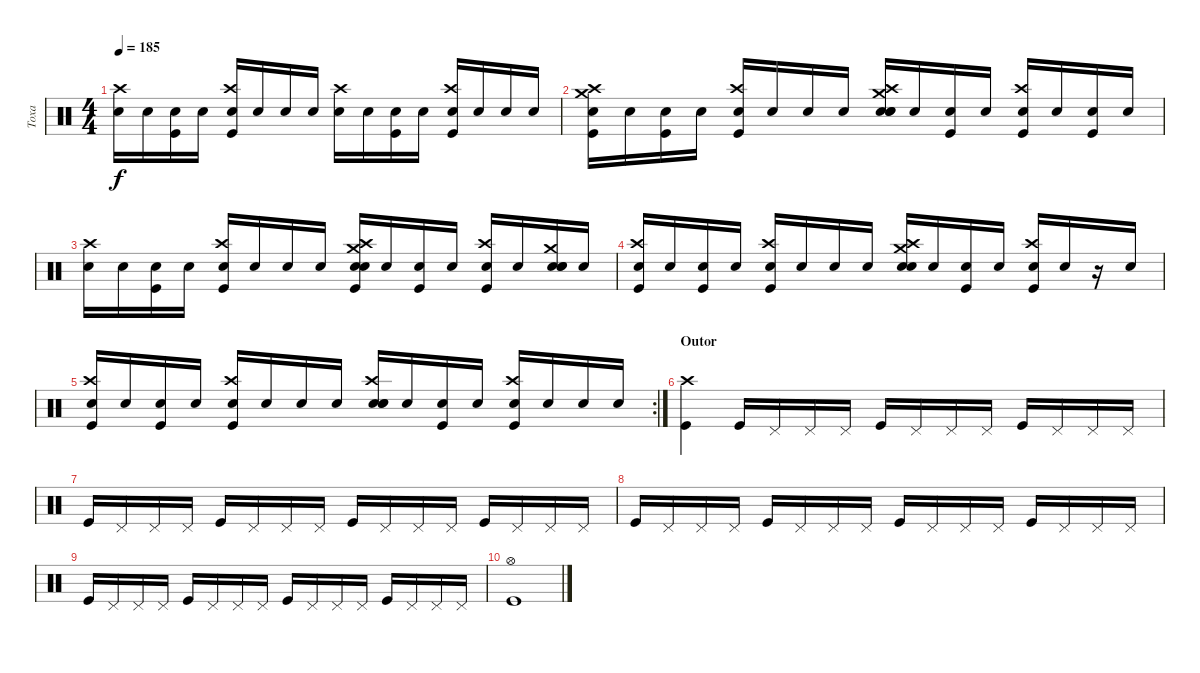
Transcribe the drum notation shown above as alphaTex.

\track ("Toxa" "Toxa") {instrument percussion}
\staff {score}
\articulation defaults
\ts (4 4)
\tempo 185
\clef neutral
\ks c
("Snare (hit)"{x} "Crash high (hit)").16{dy f} "Snare (hit)"{x}.16 ("Snare (hit)"{x} "Kick (hit)").16 "Snare (hit)"{x}.16 ("Snare (hit)"{x} "Kick (hit)" "Crash high (hit)").16 "Snare (hit)"{x}.16 "Snare (hit)"{x}.16 "Snare (hit)"{x}.16 ("Snare (hit)"{x} "Crash high (hit)").16 "Snare (hit)"{x}.16 ("Snare (hit)"{x} "Kick (hit)").16 "Snare (hit)"{x}.16 ("Snare (hit)"{x} "Kick (hit)" "Crash high (hit)").16 "Snare (hit)"{x}.16 "Snare (hit)"{x}.16 "Snare (hit)"{x}.16 |
("Snare (hit)"{x} "Kick (hit)" "Crash medium (hit)" "Crash high (hit)").16 "Snare (hit)"{x}.16 ("Snare (hit)"{x} "Kick (hit)").16 "Snare (hit)"{x}.16 ("Snare (hit)"{x} "Kick (hit)" "Crash high (hit)").16 "Snare (hit)"{x}.16 "Snare (hit)"{x}.16 "Snare (hit)"{x}.16 ("Snare (hit)"{x} "Crash medium (hit)" "Electric Snare (hit)" "Snare (hit) 2" "Crash high (hit)").16 "Snare (hit)"{x}.16 ("Snare (hit)"{x} "Kick (hit)").16 "Snare (hit)"{x}.16 ("Snare (hit)"{x} "Kick (hit)" "Crash high (hit)").16 "Snare (hit)"{x}.16 ("Snare (hit)"{x} "Kick (hit)").16 "Snare (hit)"{x}.16 |
("Snare (hit)"{x} "Crash high (hit)").16 "Snare (hit)"{x}.16 ("Snare (hit)"{x} "Kick (hit)").16 "Snare (hit)"{x}.16 ("Snare (hit)"{x} "Kick (hit)" "Crash high (hit)").16 "Snare (hit)"{x}.16 "Snare (hit)"{x}.16 "Snare (hit)"{x}.16 ("Snare (hit)"{x} "Electric Snare (hit)" "Crash medium (hit)" "Kick (hit)" "Crash high (hit)").16 "Snare (hit)"{x}.16 ("Snare (hit)"{x} "Kick (hit)").16 "Snare (hit)"{x}.16 ("Snare (hit)"{x} "Kick (hit)" "Crash high (hit)").16 "Snare (hit)"{x}.16 ("Snare (hit)"{x} "Electric Snare (hit)" "Crash medium (hit)" "Snare (hit) 2").16 "Snare (hit)"{x}.16 |
("Snare (hit)"{x} "Kick (hit)" "Crash high (hit)").16 "Snare (hit)"{x}.16 ("Snare (hit)"{x} "Kick (hit)").16 "Snare (hit)"{x}.16 ("Snare (hit)"{x} "Kick (hit)" "Crash high (hit)").16 "Snare (hit)"{x}.16 "Snare (hit)"{x}.16 "Snare (hit)"{x}.16 ("Crash medium (hit)" "Electric Snare (hit)" "Snare (hit) 2" "Crash high (hit)").16 "Snare (hit)"{x}.16 ("Snare (hit)"{x} "Kick (hit)").16 "Snare (hit)"{x}.16 ("Snare (hit)"{x} "Kick (hit)" "Crash high (hit)").16 "Snare (hit)"{x}.16 r.16 "Snare (hit)"{x}.16 |
\rc 2
("Snare (hit)"{x} "Kick (hit)" "Crash high (hit)").16 "Snare (hit)"{x}.16 ("Snare (hit)"{x} "Kick (hit)").16 "Snare (hit)"{x}.16 ("Snare (hit)"{x} "Kick (hit)" "Crash high (hit)").16 "Snare (hit)"{x}.16 "Snare (hit)"{x}.16 "Snare (hit)"{x}.16 ("Snare (hit)"{x} "Snare (hit) 2" "Electric Snare (hit)" "Crash high (hit)").16 "Snare (hit)"{x}.16 ("Snare (hit)"{x} "Kick (hit)").16 "Snare (hit)"{x}.16 ("Snare (hit)"{x} "Kick (hit)" "Crash high (hit)").16 "Snare (hit)"{x}.16 "Snare (hit)"{x}.16 "Snare (hit)"{x}.16 |
\section ("" "Outor")
("Crash high (hit)" "Kick (hit)").4 "Kick (hit)".16 "Pedal Hi-Hat (hit)".16 "Pedal Hi-Hat (hit)".16 "Pedal Hi-Hat (hit)".16 "Kick (hit)".16 "Pedal Hi-Hat (hit)".16 "Pedal Hi-Hat (hit)".16 "Pedal Hi-Hat (hit)".16 "Kick (hit)".16 "Pedal Hi-Hat (hit)".16 "Pedal Hi-Hat (hit)".16 "Pedal Hi-Hat (hit)".16 |
"Kick (hit)".16 "Pedal Hi-Hat (hit)".16 "Pedal Hi-Hat (hit)".16 "Pedal Hi-Hat (hit)".16 "Kick (hit)".16 "Pedal Hi-Hat (hit)".16 "Pedal Hi-Hat (hit)".16 "Pedal Hi-Hat (hit)".16 "Kick (hit)".16 "Pedal Hi-Hat (hit)".16 "Pedal Hi-Hat (hit)".16 "Pedal Hi-Hat (hit)".16 "Kick (hit)".16 "Pedal Hi-Hat (hit)".16 "Pedal Hi-Hat (hit)".16 "Pedal Hi-Hat (hit)".16 |
"Kick (hit)".16 "Pedal Hi-Hat (hit)".16 "Pedal Hi-Hat (hit)".16 "Pedal Hi-Hat (hit)".16 "Kick (hit)".16 "Pedal Hi-Hat (hit)".16 "Pedal Hi-Hat (hit)".16 "Pedal Hi-Hat (hit)".16 "Kick (hit)".16 "Pedal Hi-Hat (hit)".16 "Pedal Hi-Hat (hit)".16 "Pedal Hi-Hat (hit)".16 "Kick (hit)".16 "Pedal Hi-Hat (hit)".16 "Pedal Hi-Hat (hit)".16 "Pedal Hi-Hat (hit)".16 |
"Kick (hit)".16 "Pedal Hi-Hat (hit)".16 "Pedal Hi-Hat (hit)".16 "Pedal Hi-Hat (hit)".16 "Kick (hit)".16 "Pedal Hi-Hat (hit)".16 "Pedal Hi-Hat (hit)".16 "Pedal Hi-Hat (hit)".16 "Kick (hit)".16 "Pedal Hi-Hat (hit)".16 "Pedal Hi-Hat (hit)".16 "Pedal Hi-Hat (hit)".16 "Kick (hit)".16 "Pedal Hi-Hat (hit)".16 "Pedal Hi-Hat (hit)".16 "Pedal Hi-Hat (hit)".16 |
("Kick (hit)" "Hi-Hat (open)").1
